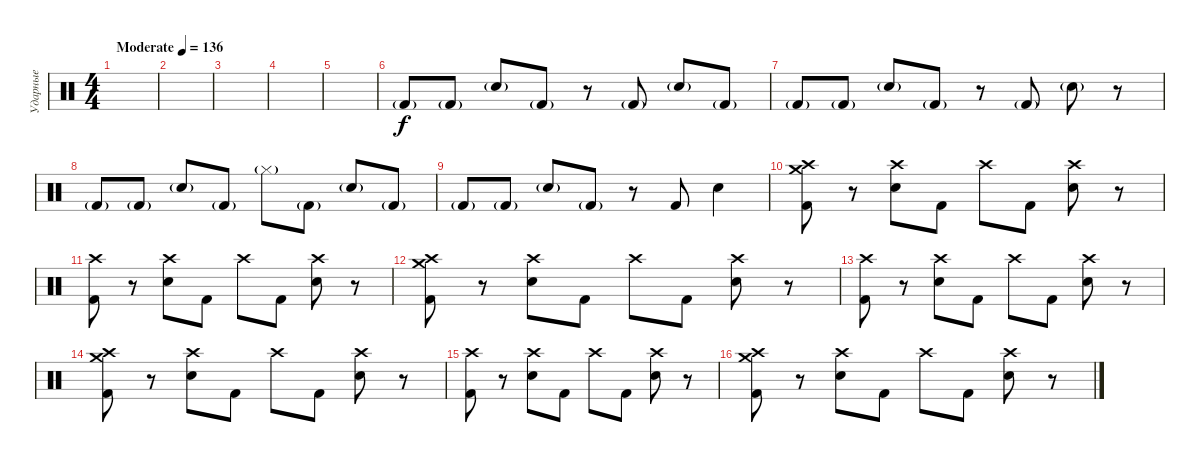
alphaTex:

\track ("Ударные" "Ударные") {instrument percussion}
\staff {score}
\articulation defaults
\ts (4 4)
\tempo (136 "Moderate")
\clef neutral
\ks c
|
|
|
|
|
"Kick (hit) 2"{g}.8 "Kick (hit) 2"{g}.8 "Electric Snare (hit)"{g}.8 "Kick (hit) 2"{g}.8 r.8 "Kick (hit) 2"{g}.8 "Electric Snare (hit)"{g}.8 "Kick (hit) 2"{g}.8 |
"Kick (hit) 2"{g}.8 "Kick (hit) 2"{g}.8 "Electric Snare (hit)"{g}.8 "Kick (hit) 2"{g}.8 r.8 "Kick (hit) 2"{g}.8 "Electric Snare (hit)"{g}.8 r.8 |
"Kick (hit) 2"{g}.8 "Kick (hit) 2"{g}.8 "Electric Snare (hit)"{g}.8 "Kick (hit) 2"{g}.8 "Hi-Hat (closed)"{g}.8 "Kick (hit) 2"{g}.8 "Electric Snare (hit)"{g}.8 "Kick (hit) 2"{g}.8 |
"Kick (hit) 2"{g}.8 "Kick (hit) 2"{g}.8 "Electric Snare (hit)"{g}.8 "Kick (hit) 2"{g}.8 r.8 "Kick (hit) 2".8{dy f} "Electric Snare (hit)".4 |
("Crash high (hit)" "Crash medium (hit)" "Kick (hit) 2").8 r.8 ("Crash high (hit)" "Electric Snare (hit)").8 "Kick (hit) 2".8 "Crash high (hit)".8 "Kick (hit) 2".8 ("Crash high (hit)" "Electric Snare (hit)").8 r.8 |
("Crash high (hit)" "Kick (hit) 2").8 r.8 ("Crash high (hit)" "Electric Snare (hit)").8 "Kick (hit) 2".8 "Crash high (hit)".8 "Kick (hit) 2".8 ("Crash high (hit)" "Electric Snare (hit)").8 r.8 |
("Crash high (hit)" "Crash medium (hit)" "Kick (hit) 2").8 r.8 ("Crash high (hit)" "Electric Snare (hit)").8 "Kick (hit) 2".8 "Crash high (hit)".8 "Kick (hit) 2".8 ("Crash high (hit)" "Electric Snare (hit)").8 r.8 |
("Crash high (hit)" "Kick (hit) 2").8 r.8 ("Crash high (hit)" "Electric Snare (hit)").8 "Kick (hit) 2".8 "Crash high (hit)".8 "Kick (hit) 2".8 ("Crash high (hit)" "Electric Snare (hit)").8 r.8 |
("Crash high (hit)" "Crash medium (hit)" "Kick (hit) 2").8 r.8 ("Crash high (hit)" "Electric Snare (hit)").8 "Kick (hit) 2".8 "Crash high (hit)".8 "Kick (hit) 2".8 ("Crash high (hit)" "Electric Snare (hit)").8 r.8 |
("Crash high (hit)" "Kick (hit) 2").8 r.8 ("Crash high (hit)" "Electric Snare (hit)").8 "Kick (hit) 2".8 "Crash high (hit)".8 "Kick (hit) 2".8 ("Crash high (hit)" "Electric Snare (hit)").8 r.8 |
("Crash high (hit)" "Crash medium (hit)" "Kick (hit) 2").8 r.8 ("Crash high (hit)" "Electric Snare (hit)").8 "Kick (hit) 2".8 "Crash high (hit)".8 "Kick (hit) 2".8 ("Crash high (hit)" "Electric Snare (hit)").8 r.8
